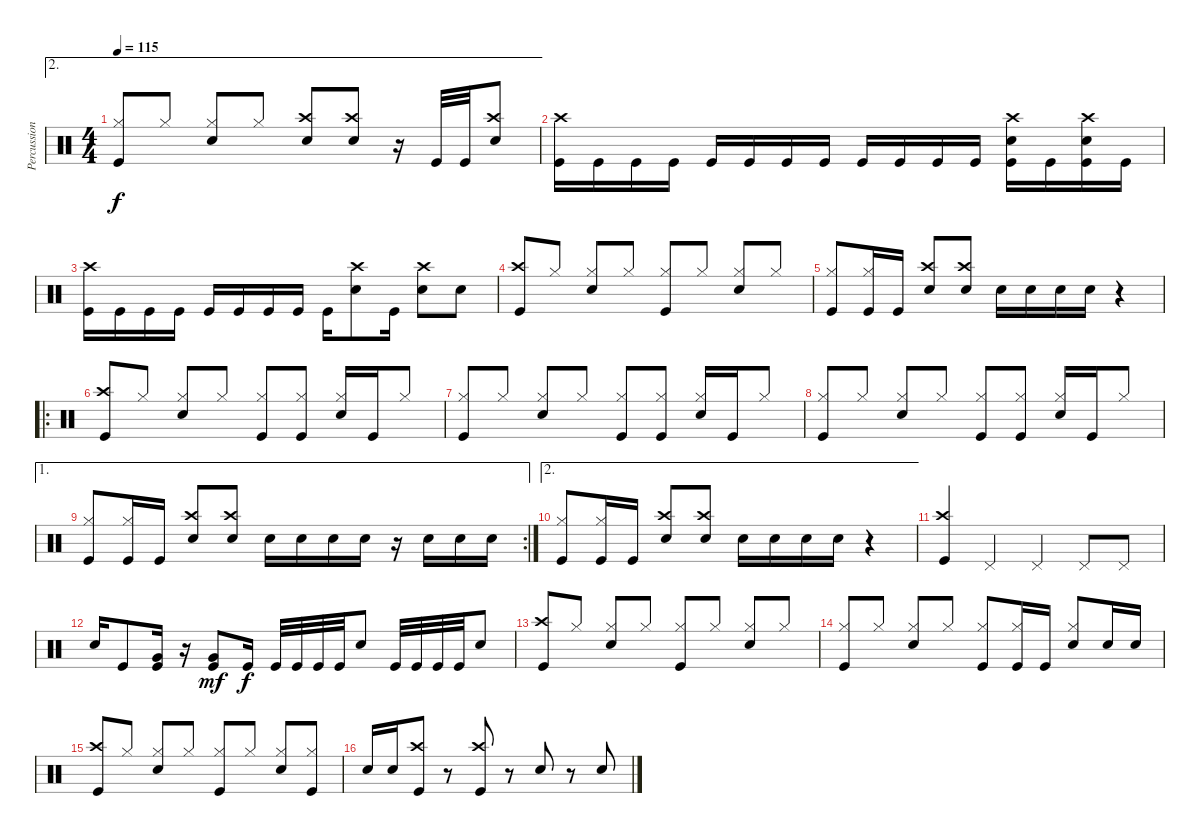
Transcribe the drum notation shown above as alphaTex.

\track ("Percussion" "Percussion") {instrument percussion}
\staff {score}
\articulation defaults
\ae 2
\ts (4 4)
\tempo 115
\clef neutral
\ks c
("Hi-Hat (closed)" "Kick (hit)").8{dy f beam Up} "Hi-Hat (closed)".8{beam Up} ("Hi-Hat (closed)" "Snare (hit) 2").8{beam Up} "Hi-Hat (closed)".8{beam Up} ("Crash high (hit)" "Snare (hit) 2").8{beam Up} ("Crash high (hit)" "Snare (hit) 2").8{beam Up} r.16 "Kick (hit)".32{beam Up} "Kick (hit)".32{beam Up} ("Snare (hit) 2" "Crash high (hit)").8{beam Up} |
("Kick (hit)" "Crash high (hit)").16{beam Down} "Kick (hit)".16{beam Down} "Kick (hit)".16{beam Down} "Kick (hit)".16{beam Down} "Kick (hit)".16 "Kick (hit)".16 "Kick (hit)".16 "Kick (hit)".16 "Kick (hit)".16 "Kick (hit)".16 "Kick (hit)".16 "Kick (hit)".16 ("Kick (hit)" "Crash high (hit)" "Snare (hit) 2").16 "Kick (hit)".16 ("Kick (hit)" "Crash high (hit)" "Snare (hit) 2").16 "Kick (hit)".16 |
("Kick (hit)" "Crash high (hit)").16 "Kick (hit)".16 "Kick (hit)".16 "Kick (hit)".16 "Kick (hit)".16 "Kick (hit)".16 "Kick (hit)".16 "Kick (hit)".16 "Kick (hit)".16 ("Crash high (hit)" "Snare (hit) 2").8 "Kick (hit)".16 ("Crash high (hit)" "Snare (hit) 2").8 "Snare (hit) 2".8 |
("Crash high (hit)" "Kick (hit)").8{beam Up} "Hi-Hat (closed)".8{beam Up} ("Hi-Hat (closed)" "Snare (hit) 2").8{beam Up} "Hi-Hat (closed)".8{beam Up} ("Hi-Hat (closed)" "Kick (hit)").8{beam Up} "Hi-Hat (closed)".8{beam Up} ("Hi-Hat (closed)" "Snare (hit) 2").8{beam Up} "Hi-Hat (closed)".8{beam Up} |
("Hi-Hat (closed)" "Kick (hit)").8{beam Up} ("Hi-Hat (closed)" "Kick (hit)").16{beam Up} "Kick (hit)".16{beam Up} ("Crash high (hit)" "Snare (hit) 2").8{beam Up} ("Crash high (hit)" "Snare (hit) 2").8{beam Up} "Snare (hit) 2".16 "Snare (hit) 2".16 "Snare (hit) 2".16 "Snare (hit) 2".16 r.4 |
\ro
("Crash high (hit)" "Kick (hit)").8{beam Up} "Hi-Hat (closed)".8{beam Up} ("Hi-Hat (closed)" "Snare (hit) 2").8{beam Up} "Hi-Hat (closed)".8{beam Up} ("Hi-Hat (closed)" "Kick (hit)").8{beam Up} ("Hi-Hat (closed)" "Kick (hit)").8{beam Up} ("Hi-Hat (closed)" "Snare (hit) 2").16{beam Up} "Kick (hit)".16{beam Up} "Hi-Hat (closed)".8{beam Up} |
("Hi-Hat (closed)" "Kick (hit)").8{beam Up} "Hi-Hat (closed)".8{beam Up} ("Hi-Hat (closed)" "Snare (hit) 2").8{beam Up} "Hi-Hat (closed)".8{beam Up} ("Hi-Hat (closed)" "Kick (hit)").8{beam Up} ("Hi-Hat (closed)" "Kick (hit)").8{beam Up} ("Hi-Hat (closed)" "Snare (hit) 2").16{beam Up} "Kick (hit)".16{beam Up} "Hi-Hat (closed)".8{beam Up} |
("Hi-Hat (closed)" "Kick (hit)").8{beam Up} "Hi-Hat (closed)".8{beam Up} ("Hi-Hat (closed)" "Snare (hit) 2").8{beam Up} "Hi-Hat (closed)".8{beam Up} ("Hi-Hat (closed)" "Kick (hit)").8{beam Up} ("Hi-Hat (closed)" "Kick (hit)").8{beam Up} ("Hi-Hat (closed)" "Snare (hit) 2").16{beam Up} "Kick (hit)".16{beam Up} "Hi-Hat (closed)".8{beam Up} |
\ae 1
\rc 2
("Hi-Hat (closed)" "Kick (hit)").8{beam Up} ("Hi-Hat (closed)" "Kick (hit)").16{beam Up} "Kick (hit)".16{beam Up} ("Crash high (hit)" "Snare (hit) 2").8{beam Up} ("Crash high (hit)" "Snare (hit) 2").8{beam Up} "Snare (hit) 2".16 "Snare (hit) 2".16 "Snare (hit) 2".16 "Snare (hit) 2".16 r.16 "Snare (hit) 2".16 "Snare (hit) 2".16 "Snare (hit) 2".16 |
\ae 2
("Hi-Hat (closed)" "Kick (hit)").8{beam Up} ("Hi-Hat (closed)" "Kick (hit)").16{beam Up} "Kick (hit)".16{beam Up} ("Crash high (hit)" "Snare (hit) 2").8{beam Up} ("Crash high (hit)" "Snare (hit) 2").8{beam Up} "Snare (hit) 2".16 "Snare (hit) 2".16 "Snare (hit) 2".16 "Snare (hit) 2".16 r.4 |
("Crash high (hit)" "Kick (hit)").4{beam Up} "Pedal Hi-Hat (hit)".4 "Pedal Hi-Hat (hit)".4 "Pedal Hi-Hat (hit)".8 "Pedal Hi-Hat (hit)".8 |
"Snare (hit) 2".16{beam Up} "Kick (hit)".8{beam Up} ("Very Low Tom (hit)" "Kick (hit)").16{beam Up} r.16 ("Very Low Tom (hit)" "Kick (hit)").8{dy mf beam Up} "Kick (hit)".16{dy f beam Up} "Kick (hit)".32 "Kick (hit)".32 "Kick (hit)".32 "Kick (hit)".32 "Snare (hit) 2".8 "Kick (hit)".32 "Kick (hit)".32 "Kick (hit)".32 "Kick (hit)".32 "Snare (hit) 2".8 |
("Crash high (hit)" "Kick (hit)").8{beam Up} "Hi-Hat (closed)".8{beam Up} ("Hi-Hat (closed)" "Snare (hit) 2").8{beam Up} "Hi-Hat (closed)".8{beam Up} ("Hi-Hat (closed)" "Kick (hit)").8{beam Up} "Hi-Hat (closed)".8{beam Up} ("Hi-Hat (closed)" "Snare (hit) 2").8{beam Up} "Hi-Hat (closed)".8{beam Up} |
("Hi-Hat (closed)" "Kick (hit)").8{beam Up} "Hi-Hat (closed)".8{beam Up} ("Hi-Hat (closed)" "Snare (hit) 2").8{beam Up} "Hi-Hat (closed)".8{beam Up} ("Hi-Hat (closed)" "Kick (hit)").8{beam Up} ("Hi-Hat (closed)" "Kick (hit)").16{beam Up} "Kick (hit)".16{beam Up} ("Hi-Hat (closed)" "Snare (hit) 2").8{beam Up} "Snare (hit) 2".16{beam Up} "Snare (hit) 2".16{beam Up} |
("Crash high (hit)" "Kick (hit)").8{beam Up} "Hi-Hat (closed)".8{beam Up} ("Hi-Hat (closed)" "Snare (hit) 2").8{beam Up} "Hi-Hat (closed)".8{beam Up} ("Hi-Hat (closed)" "Kick (hit)").8{beam Up} "Hi-Hat (closed)".8{beam Up} ("Hi-Hat (closed)" "Snare (hit) 2").8{beam Up} ("Hi-Hat (closed)" "Kick (hit)").8{beam Up} |
"Snare (hit) 2".16{beam Up} "Snare (hit) 2".16{beam Up} ("Crash high (hit)" "Kick (hit)").8{beam Up} r.8 ("Crash high (hit)" "Kick (hit)").8{beam Up} r.8 "Snare (hit) 2".8{beam Up} r.8 "Snare (hit) 2".8{beam Up}
